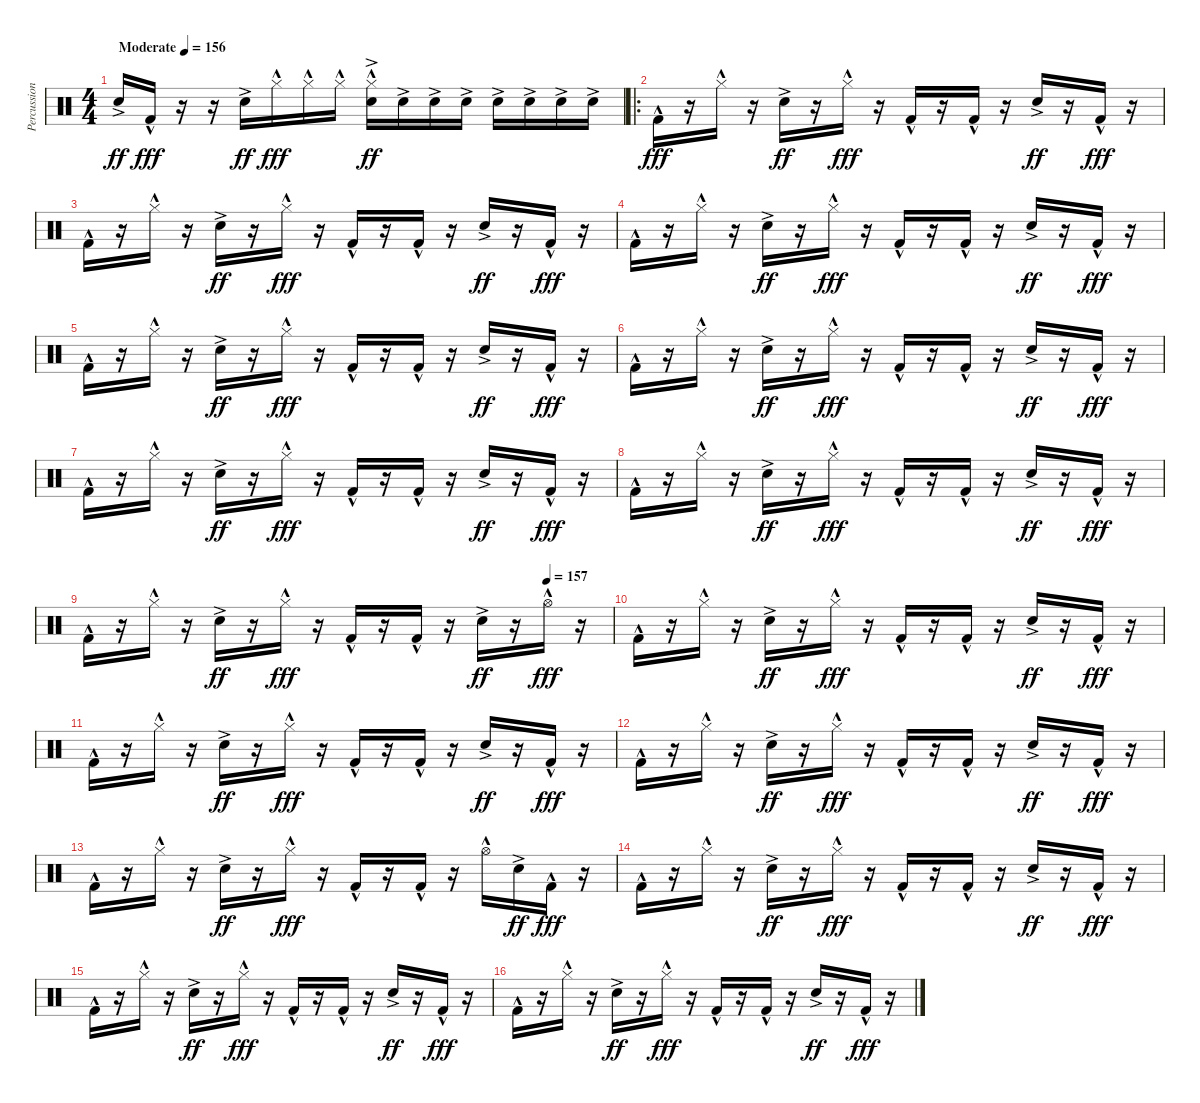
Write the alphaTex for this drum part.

\track ("Percussion" "Percussion") {instrument percussion}
\staff {score}
\articulation defaults
\ts (4 4)
\tempo (156 "Moderate")
\clef neutral
\ks c "Snare (hit) 2"{ac}.16{dy ff} "Kick (hit) 2"{hac}.16{dy fff}
r.16 r.16 "Snare (hit) 2"{ac}.16{dy ff} "Hi-Hat (closed)"{hac}.16{dy fff} "Hi-Hat (closed)"{hac}.16 "Hi-Hat (closed)"{hac}.16 ("Hi-Hat (closed)"{hac} "Snare (hit) 2"{ac}).16{dy ff} "Snare (hit) 2"{ac}.16 "Snare (hit) 2"{ac}.16 "Snare (hit) 2"{ac}.16 "Snare (hit) 2"{ac}.16 "Snare (hit) 2"{ac}.16 "Snare (hit) 2"{ac}.16 "Snare (hit) 2"{ac}.16 |
\ro "Kick (hit) 2"{hac}.16{dy fff}
r.16 "Hi-Hat (closed)"{hac}.16 r.16 "Snare (hit) 2"{ac}.16{dy ff} r.16 "Hi-Hat (closed)"{hac}.16{dy fff} r.16 "Kick (hit) 2"{hac}.16 r.16 "Kick (hit) 2"{hac}.16 r.16 "Snare (hit) 2"{ac}.16{dy ff} r.16 "Kick (hit) 2"{hac}.16{dy fff} r.16 |
"Kick (hit) 2"{hac}.16 r.16 "Hi-Hat (closed)"{hac}.16 r.16 "Snare (hit) 2"{ac}.16{dy ff} r.16 "Hi-Hat (closed)"{hac}.16{dy fff} r.16 "Kick (hit) 2"{hac}.16 r.16 "Kick (hit) 2"{hac}.16 r.16 "Snare (hit) 2"{ac}.16{dy ff} r.16 "Kick (hit) 2"{hac}.16{dy fff} r.16 |
"Kick (hit) 2"{hac}.16 r.16 "Hi-Hat (closed)"{hac}.16 r.16 "Snare (hit) 2"{ac}.16{dy ff} r.16 "Hi-Hat (closed)"{hac}.16{dy fff} r.16 "Kick (hit) 2"{hac}.16 r.16 "Kick (hit) 2"{hac}.16 r.16 "Snare (hit) 2"{ac}.16{dy ff} r.16 "Kick (hit) 2"{hac}.16{dy fff} r.16 |
"Kick (hit) 2"{hac}.16 r.16 "Hi-Hat (closed)"{hac}.16 r.16 "Snare (hit) 2"{ac}.16{dy ff} r.16 "Hi-Hat (closed)"{hac}.16{dy fff} r.16 "Kick (hit) 2"{hac}.16 r.16 "Kick (hit) 2"{hac}.16 r.16 "Snare (hit) 2"{ac}.16{dy ff} r.16 "Kick (hit) 2"{hac}.16{dy fff} r.16 |
"Kick (hit) 2"{hac}.16 r.16 "Hi-Hat (closed)"{hac}.16 r.16 "Snare (hit) 2"{ac}.16{dy ff} r.16 "Hi-Hat (closed)"{hac}.16{dy fff} r.16 "Kick (hit) 2"{hac}.16 r.16 "Kick (hit) 2"{hac}.16 r.16 "Snare (hit) 2"{ac}.16{dy ff} r.16 "Kick (hit) 2"{hac}.16{dy fff} r.16 |
"Kick (hit) 2"{hac}.16 r.16 "Hi-Hat (closed)"{hac}.16 r.16 "Snare (hit) 2"{ac}.16{dy ff} r.16 "Hi-Hat (closed)"{hac}.16{dy fff} r.16 "Kick (hit) 2"{hac}.16 r.16 "Kick (hit) 2"{hac}.16 r.16 "Snare (hit) 2"{ac}.16{dy ff} r.16 "Kick (hit) 2"{hac}.16{dy fff} r.16 |
"Kick (hit) 2"{hac}.16 r.16 "Hi-Hat (closed)"{hac}.16 r.16 "Snare (hit) 2"{ac}.16{dy ff} r.16 "Hi-Hat (closed)"{hac}.16{dy fff} r.16 "Kick (hit) 2"{hac}.16 r.16 "Kick (hit) 2"{hac}.16 r.16 "Snare (hit) 2"{ac}.16{dy ff} r.16 "Kick (hit) 2"{hac}.16{dy fff} r.16 |
\tempo (157 0.875)
"Kick (hit) 2"{hac}.16 r.16 "Hi-Hat (closed)"{hac}.16 r.16 "Snare (hit) 2"{ac}.16{dy ff} r.16 "Hi-Hat (closed)"{hac}.16{dy fff} r.16 "Kick (hit) 2"{hac}.16 r.16 "Kick (hit) 2"{hac}.16 r.16 "Snare (hit) 2"{ac}.16{dy ff} r.16 "Hi-Hat (open)"{hac}.16{dy fff} r.16 |
"Kick (hit) 2"{hac}.16 r.16 "Hi-Hat (closed)"{hac}.16 r.16 "Snare (hit) 2"{ac}.16{dy ff} r.16 "Hi-Hat (closed)"{hac}.16{dy fff} r.16 "Kick (hit) 2"{hac}.16 r.16 "Kick (hit) 2"{hac}.16 r.16 "Snare (hit) 2"{ac}.16{dy ff} r.16 "Kick (hit) 2"{hac}.16{dy fff} r.16 |
"Kick (hit) 2"{hac}.16 r.16 "Hi-Hat (closed)"{hac}.16 r.16 "Snare (hit) 2"{ac}.16{dy ff} r.16 "Hi-Hat (closed)"{hac}.16{dy fff} r.16 "Kick (hit) 2"{hac}.16 r.16 "Kick (hit) 2"{hac}.16 r.16 "Snare (hit) 2"{ac}.16{dy ff} r.16 "Kick (hit) 2"{hac}.16{dy fff} r.16 |
"Kick (hit) 2"{hac}.16 r.16 "Hi-Hat (closed)"{hac}.16 r.16 "Snare (hit) 2"{ac}.16{dy ff} r.16 "Hi-Hat (closed)"{hac}.16{dy fff} r.16 "Kick (hit) 2"{hac}.16 r.16 "Kick (hit) 2"{hac}.16 r.16 "Snare (hit) 2"{ac}.16{dy ff} r.16 "Kick (hit) 2"{hac}.16{dy fff} r.16 |
"Kick (hit) 2"{hac}.16 r.16 "Hi-Hat (closed)"{hac}.16 r.16 "Snare (hit) 2"{ac}.16{dy ff} r.16 "Hi-Hat (closed)"{hac}.16{dy fff} r.16 "Kick (hit) 2"{hac}.16 r.16 "Kick (hit) 2"{hac}.16 r.16 "Hi-Hat (open)"{hac}.16 "Snare (hit) 2"{ac}.16{dy ff} "Kick (hit) 2"{hac}.16{dy fff} r.16 |
"Kick (hit) 2"{hac}.16 r.16 "Hi-Hat (closed)"{hac}.16 r.16 "Snare (hit) 2"{ac}.16{dy ff} r.16 "Hi-Hat (closed)"{hac}.16{dy fff} r.16 "Kick (hit) 2"{hac}.16 r.16 "Kick (hit) 2"{hac}.16 r.16 "Snare (hit) 2"{ac}.16{dy ff} r.16 "Kick (hit) 2"{hac}.16{dy fff} r.16 |
"Kick (hit) 2"{hac}.16 r.16 "Hi-Hat (closed)"{hac}.16 r.16 "Snare (hit) 2"{ac}.16{dy ff} r.16 "Hi-Hat (closed)"{hac}.16{dy fff} r.16 "Kick (hit) 2"{hac}.16 r.16 "Kick (hit) 2"{hac}.16 r.16 "Snare (hit) 2"{ac}.16{dy ff} r.16 "Kick (hit) 2"{hac}.16{dy fff} r.16 |
"Kick (hit) 2"{hac}.16 r.16 "Hi-Hat (closed)"{hac}.16 r.16 "Snare (hit) 2"{ac}.16{dy ff} r.16 "Hi-Hat (closed)"{hac}.16{dy fff} r.16 "Kick (hit) 2"{hac}.16 r.16 "Kick (hit) 2"{hac}.16 r.16 "Snare (hit) 2"{ac}.16{dy ff} r.16 "Kick (hit) 2"{hac}.16{dy fff} r.16
